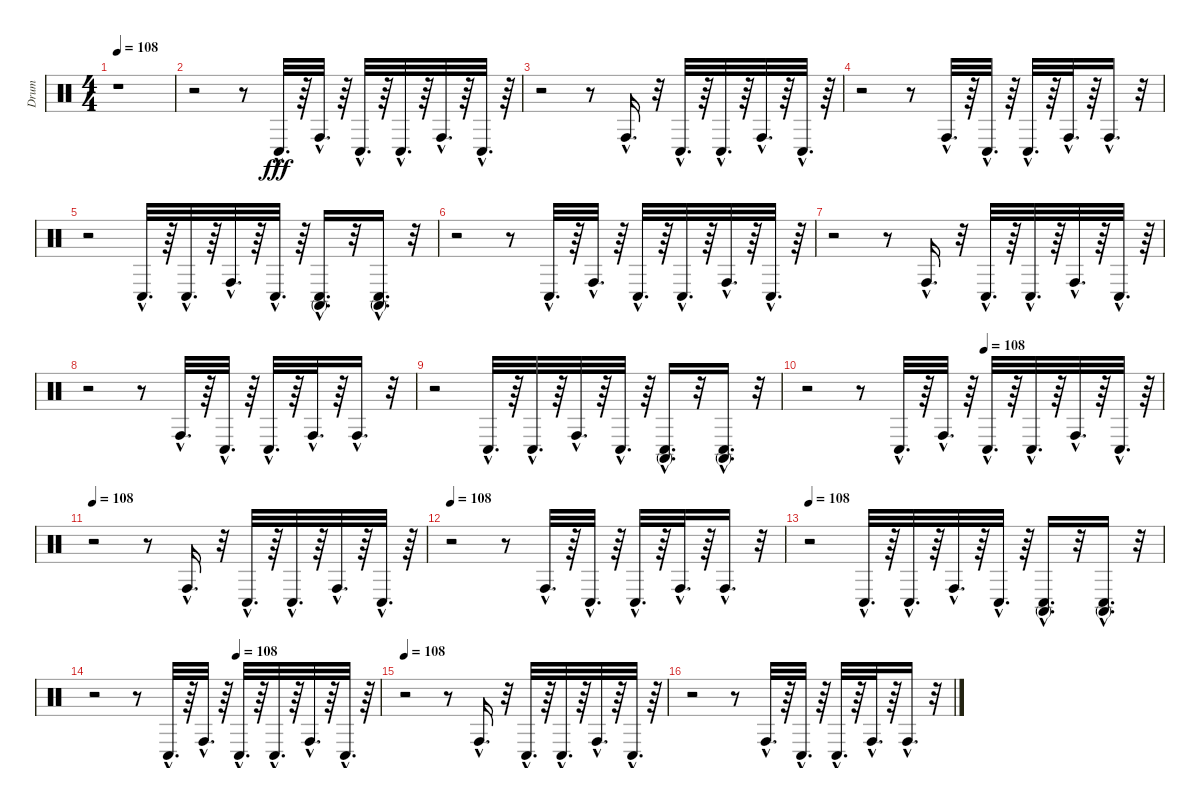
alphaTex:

\track ("Drum" "Drum") {instrument percussion}
\staff {score}
\articulation defaults
\ts (4 4)
\tempo 108
\clef neutral
\ks c
r.1{dy fff} |
r.2 r.8 "Conga low (hit)"{hac}.32{d} r.64 "Conga high (hit)"{hac}.32{d} r.64 "Conga low (hit)"{hac}.32{d} r.64 "Conga low (hit)"{hac}.32{d} r.64 "Conga high (hit)"{hac}.32{d} r.64 "Conga low (hit)"{hac}.32{d} r.64 |
r.2 r.8 "Conga high (hit)"{hac}.16{d} r.32 "Conga low (hit)"{hac}.32{d} r.64 "Conga low (hit)"{hac}.32{d} r.64 "Conga high (hit)"{hac}.32{d} r.64 "Conga low (hit)"{hac}.32{d} r.64 |
r.2 r.8 "Conga high (hit)"{hac}.32{d} r.64 "Conga low (hit)"{hac}.32{d} r.64 "Conga low (hit)"{hac}.32{d} r.64 "Conga high (hit)"{hac}.32{d} r.64 "Conga high (hit)"{hac}.16{d} r.32 |
r.2 "Conga low (hit)"{hac}.32{d} r.64 "Conga low (hit)"{hac}.32{d} r.64 "Conga high (hit)"{hac}.32{d} r.64 "Conga low (hit)"{hac}.32{d} r.64 ("Conga low (hit)"{hac} "Conga high (mute)"{hac}).16{d} r.32 ("Conga low (hit)"{hac} "Conga high (mute)"{hac}).16{d} r.32 |
r.2 r.8 "Conga low (hit)"{hac}.32{d} r.64 "Conga high (hit)"{hac}.32{d} r.64 "Conga low (hit)"{hac}.32{d} r.64 "Conga low (hit)"{hac}.32{d} r.64 "Conga high (hit)"{hac}.32{d} r.64 "Conga low (hit)"{hac}.32{d} r.64 |
r.2 r.8 "Conga high (hit)"{hac}.16{d} r.32 "Conga low (hit)"{hac}.32{d} r.64 "Conga low (hit)"{hac}.32{d} r.64 "Conga high (hit)"{hac}.32{d} r.64 "Conga low (hit)"{hac}.32{d} r.64 |
r.2 r.8 "Conga high (hit)"{hac}.32{d} r.64 "Conga low (hit)"{hac}.32{d} r.64 "Conga low (hit)"{hac}.32{d} r.64 "Conga high (hit)"{hac}.32{d} r.64 "Conga high (hit)"{hac}.16{d} r.32 |
r.2 "Conga low (hit)"{hac}.32{d} r.64 "Conga low (hit)"{hac}.32{d} r.64 "Conga high (hit)"{hac}.32{d} r.64 "Conga low (hit)"{hac}.32{d} r.64 ("Conga high (mute)"{hac} "Conga low (hit)"{hac}).16{d} r.32 ("Conga high (mute)"{hac} "Conga low (hit)"{hac}).16{d} r.32 |
\tempo (108 0.5)
r.2 r.8 "Conga low (hit)"{hac}.32{d} r.64 "Conga high (hit)"{hac}.32{d} r.64 "Conga low (hit)"{hac}.32{d} r.64 "Conga low (hit)"{hac}.32{d} r.64 "Conga high (hit)"{hac}.32{d} r.64 "Conga low (hit)"{hac}.32{d} r.64 |
\tempo 108
r.2 r.8 "Conga high (hit)"{hac}.16{d} r.32 "Conga low (hit)"{hac}.32{d} r.64 "Conga low (hit)"{hac}.32{d} r.64 "Conga high (hit)"{hac}.32{d} r.64 "Conga low (hit)"{hac}.32{d} r.64 |
\tempo 108
r.2 r.8 "Conga high (hit)"{hac}.32{d} r.64 "Conga low (hit)"{hac}.32{d} r.64 "Conga low (hit)"{hac}.32{d} r.64 "Conga high (hit)"{hac}.32{d} r.64 "Conga high (hit)"{hac}.16{d} r.32 |
\tempo 108
r.2 "Conga low (hit)"{hac}.32{d} r.64 "Conga low (hit)"{hac}.32{d} r.64 "Conga high (hit)"{hac}.32{d} r.64 "Conga low (hit)"{hac}.32{d} r.64 ("Conga high (mute)"{hac} "Conga low (hit)"{hac}).16{d} r.32 ("Conga high (mute)"{hac} "Conga low (hit)"{hac}).16{d} r.32 |
\tempo (108 0.5)
r.2 r.8 "Conga low (hit)"{hac}.32{d} r.64 "Conga high (hit)"{hac}.32{d} r.64 "Conga low (hit)"{hac}.32{d} r.64 "Conga low (hit)"{hac}.32{d} r.64 "Conga high (hit)"{hac}.32{d} r.64 "Conga low (hit)"{hac}.32{d} r.64 |
\tempo 108
r.2 r.8 "Conga high (hit)"{hac}.16{d} r.32 "Conga low (hit)"{hac}.32{d} r.64 "Conga low (hit)"{hac}.32{d} r.64 "Conga high (hit)"{hac}.32{d} r.64 "Conga low (hit)"{hac}.32{d} r.64 |
r.2 r.8 "Conga high (hit)"{hac}.32{d} r.64 "Conga low (hit)"{hac}.32{d} r.64 "Conga low (hit)"{hac}.32{d} r.64 "Conga high (hit)"{hac}.32{d} r.64 "Conga high (hit)"{hac}.16{d} r.32
